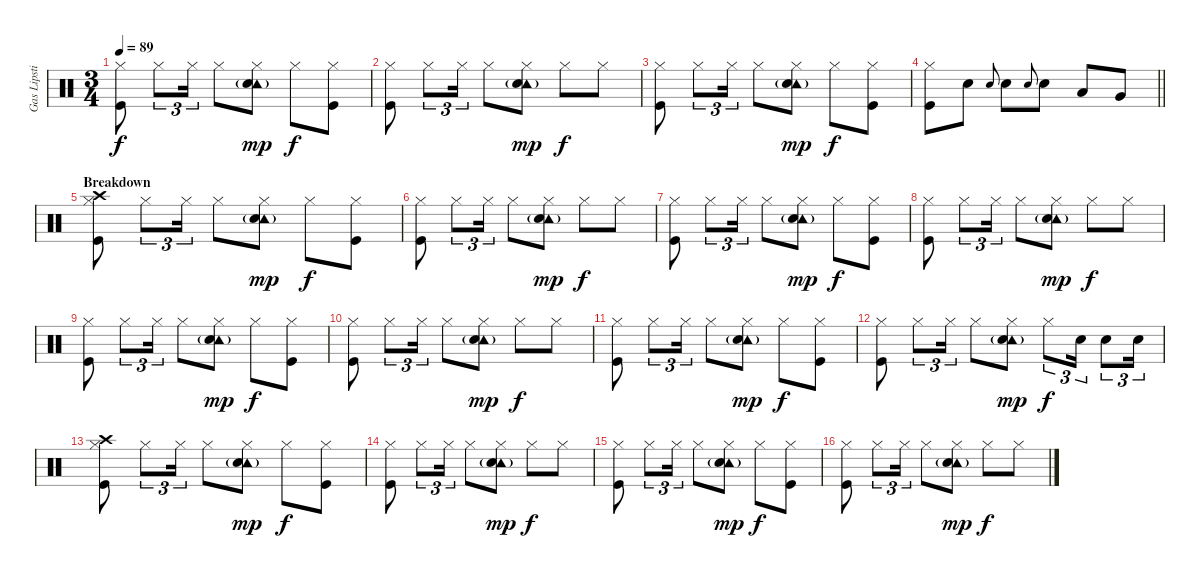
\track ("Gas Lipstick (Drums)" "Gas Lipsti") {instrument percussion}
\staff {score}
\articulation defaults
\ts (3 4)
\tempo 89
\clef neutral
\ks c
("Hi-Hat (closed)" "Kick (hit)").8{dy f} "Hi-Hat (closed)".8{tu (3 2)} "Hi-Hat (closed)".16{tu (3 2)} "Hi-Hat (closed)".8 ("Tambourine (hit)"{g} "Hi-Hat (closed)" "Snare (hit) 2").8{dy mp} "Hi-Hat (closed)".8{dy f} ("Hi-Hat (closed)" "Kick (hit)").8 |
("Hi-Hat (closed)" "Kick (hit)").8 "Hi-Hat (closed)".8{tu (3 2)} "Hi-Hat (closed)".16{tu (3 2)} "Hi-Hat (closed)".8 ("Tambourine (hit)"{g} "Hi-Hat (closed)" "Snare (hit) 2").8{dy mp} "Hi-Hat (closed)".8{dy f} "Hi-Hat (closed)".8 |
("Hi-Hat (closed)" "Kick (hit)").8 "Hi-Hat (closed)".8{tu (3 2)} "Hi-Hat (closed)".16{tu (3 2)} "Hi-Hat (closed)".8 ("Tambourine (hit)"{g} "Hi-Hat (closed)" "Snare (hit) 2").8{dy mp} "Hi-Hat (closed)".8{dy f} ("Hi-Hat (closed)" "Kick (hit)").8 |
\barLineRight lightlight
("Hi-Hat (closed)" "Kick (hit)").8 "Snare (hit) 2".8 "Snare (hit) 2".8{gr onbeat} "Snare (hit) 2".8 "Snare (hit) 2".8{gr onbeat} "Snare (hit) 2".8 "Low Tom (hit)".8 "Very Low Tom (hit)".8 |
\section ("" "Breakdown")
("Crash high (hit)" "Hi-Hat (closed)" "Kick (hit)").8 "Hi-Hat (closed)".8{tu (3 2)} "Hi-Hat (closed)".16{tu (3 2)} "Hi-Hat (closed)".8 ("Tambourine (hit)"{g} "Hi-Hat (closed)" "Snare (hit) 2").8{dy mp} "Hi-Hat (closed)".8{dy f} ("Hi-Hat (closed)" "Kick (hit)").8 |
("Hi-Hat (closed)" "Kick (hit)").8 "Hi-Hat (closed)".8{tu (3 2)} "Hi-Hat (closed)".16{tu (3 2)} "Hi-Hat (closed)".8 ("Tambourine (hit)"{g} "Hi-Hat (closed)" "Snare (hit) 2").8{dy mp} "Hi-Hat (closed)".8{dy f} "Hi-Hat (closed)".8 |
("Hi-Hat (closed)" "Kick (hit)").8 "Hi-Hat (closed)".8{tu (3 2)} "Hi-Hat (closed)".16{tu (3 2)} "Hi-Hat (closed)".8 ("Tambourine (hit)"{g} "Hi-Hat (closed)" "Snare (hit) 2").8{dy mp} "Hi-Hat (closed)".8{dy f} ("Hi-Hat (closed)" "Kick (hit)").8 |
("Hi-Hat (closed)" "Kick (hit)").8 "Hi-Hat (closed)".8{tu (3 2)} "Hi-Hat (closed)".16{tu (3 2)} "Hi-Hat (closed)".8 ("Tambourine (hit)"{g} "Hi-Hat (closed)" "Snare (hit) 2").8{dy mp} "Hi-Hat (closed)".8{dy f} "Hi-Hat (closed)".8 |
("Hi-Hat (closed)" "Kick (hit)").8 "Hi-Hat (closed)".8{tu (3 2)} "Hi-Hat (closed)".16{tu (3 2)} "Hi-Hat (closed)".8 ("Tambourine (hit)"{g} "Hi-Hat (closed)" "Snare (hit) 2").8{dy mp} "Hi-Hat (closed)".8{dy f} ("Hi-Hat (closed)" "Kick (hit)").8 |
("Hi-Hat (closed)" "Kick (hit)").8 "Hi-Hat (closed)".8{tu (3 2)} "Hi-Hat (closed)".16{tu (3 2)} "Hi-Hat (closed)".8 ("Tambourine (hit)"{g} "Hi-Hat (closed)" "Snare (hit) 2").8{dy mp} "Hi-Hat (closed)".8{dy f} "Hi-Hat (closed)".8 |
("Hi-Hat (closed)" "Kick (hit)").8 "Hi-Hat (closed)".8{tu (3 2)} "Hi-Hat (closed)".16{tu (3 2)} "Hi-Hat (closed)".8 ("Tambourine (hit)"{g} "Hi-Hat (closed)" "Snare (hit) 2").8{dy mp} "Hi-Hat (closed)".8{dy f} ("Hi-Hat (closed)" "Kick (hit)").8 |
("Hi-Hat (closed)" "Kick (hit)").8 "Hi-Hat (closed)".8{tu (3 2)} "Hi-Hat (closed)".16{tu (3 2)} "Hi-Hat (closed)".8 ("Tambourine (hit)"{g} "Hi-Hat (closed)" "Snare (hit) 2").8{dy mp} "Hi-Hat (closed)".8{tu (3 2) dy f} "Snare (hit) 2".16{tu (3 2)} "Snare (hit) 2".8{tu (3 2)} "Snare (hit) 2".16{tu (3 2)} |
("Crash high (hit)" "Hi-Hat (closed)" "Kick (hit)").8 "Hi-Hat (closed)".8{tu (3 2)} "Hi-Hat (closed)".16{tu (3 2)} "Hi-Hat (closed)".8 ("Tambourine (hit)"{g} "Hi-Hat (closed)" "Snare (hit) 2").8{dy mp} "Hi-Hat (closed)".8{dy f} ("Hi-Hat (closed)" "Kick (hit)").8 |
("Hi-Hat (closed)" "Kick (hit)").8 "Hi-Hat (closed)".8{tu (3 2)} "Hi-Hat (closed)".16{tu (3 2)} "Hi-Hat (closed)".8 ("Tambourine (hit)"{g} "Hi-Hat (closed)" "Snare (hit) 2").8{dy mp} "Hi-Hat (closed)".8{dy f} "Hi-Hat (closed)".8 |
("Hi-Hat (closed)" "Kick (hit)").8 "Hi-Hat (closed)".8{tu (3 2)} "Hi-Hat (closed)".16{tu (3 2)} "Hi-Hat (closed)".8 ("Tambourine (hit)"{g} "Hi-Hat (closed)" "Snare (hit) 2").8{dy mp} "Hi-Hat (closed)".8{dy f} ("Hi-Hat (closed)" "Kick (hit)").8 |
("Hi-Hat (closed)" "Kick (hit)").8 "Hi-Hat (closed)".8{tu (3 2)} "Hi-Hat (closed)".16{tu (3 2)} "Hi-Hat (closed)".8 ("Tambourine (hit)"{g} "Hi-Hat (closed)" "Snare (hit) 2").8{dy mp} "Hi-Hat (closed)".8{dy f} "Hi-Hat (closed)".8
